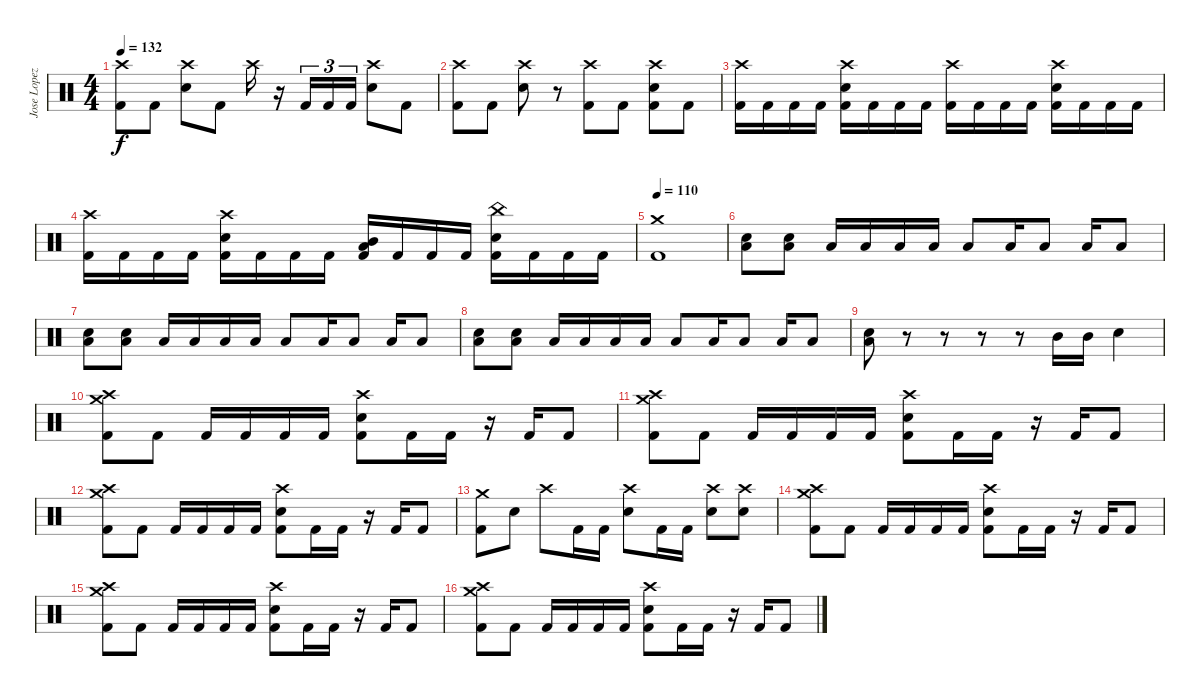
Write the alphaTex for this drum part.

\track ("Jose Lopez" "Jose Lopez") {instrument percussion}
\staff {score}
\articulation defaults
\ts (4 4)
\tempo 132
\clef neutral
\ks c
("Crash high (hit)" "Kick (hit) 2").8{dy f} "Kick (hit) 2".8 ("Crash high (hit)" "Electric Snare (hit)").8 "Kick (hit) 2".8 "Crash high (hit)".16 r.16 "Kick (hit) 2".16{tu (3 2)} "Kick (hit) 2".16{tu (3 2)} "Kick (hit) 2".16{tu (3 2)} ("Crash high (hit)" "Electric Snare (hit)").8 "Kick (hit) 2".8 |
("Crash high (hit)" "Kick (hit) 2").8 "Kick (hit) 2".8 ("Crash high (hit)" "Electric Snare (hit)").8 r.8 ("Crash high (hit)" "Kick (hit) 2").8 "Kick (hit) 2".8 ("Crash high (hit)" "Electric Snare (hit)" "Kick (hit) 2").8 "Kick (hit) 2".8 |
("Crash high (hit)" "Kick (hit) 2").16 "Kick (hit) 2".16 "Kick (hit) 2".16 "Kick (hit) 2".16 ("Crash high (hit)" "Electric Snare (hit)" "Kick (hit) 2").16 "Kick (hit) 2".16 "Kick (hit) 2".16 "Kick (hit) 2".16 ("Crash high (hit)" "Kick (hit) 2").16 "Kick (hit) 2".16 "Kick (hit) 2".16 "Kick (hit) 2".16 ("Crash high (hit)" "Electric Snare (hit)" "Kick (hit) 2").16 "Kick (hit) 2".16 "Kick (hit) 2".16 "Kick (hit) 2".16 |
("Crash high (hit)" "Kick (hit) 2").16 "Kick (hit) 2".16 "Kick (hit) 2".16 "Kick (hit) 2".16 ("Crash high (hit)" "Electric Snare (hit)" "Kick (hit) 2").16 "Kick (hit) 2".16 "Kick (hit) 2".16 "Kick (hit) 2".16 ("Mid Tom (hit)" "Low Tom (hit)" "Kick (hit) 2").16 "Kick (hit) 2".16 "Kick (hit) 2".16 "Kick (hit) 2".16 ("China (hit)" "Electric Snare (hit)" "Kick (hit) 2").16 "Kick (hit) 2".16 "Kick (hit) 2".16 "Kick (hit) 2".16 |
\tempo 110
("Crash medium (hit)" "Kick (hit) 2").1 |
("Electric Snare (hit)" "Low Tom (hit)").8 ("Electric Snare (hit)" "Low Tom (hit)").8 "Low Tom (hit)".16 "Low Tom (hit)".16 "Low Tom (hit)".16 "Low Tom (hit)".16 "Low Tom (hit)".8 "Low Tom (hit)".16 "Low Tom (hit)".8 "Low Tom (hit)".16 "Low Tom (hit)".8 |
("Electric Snare (hit)" "Low Tom (hit)").8 ("Electric Snare (hit)" "Low Tom (hit)").8 "Low Tom (hit)".16 "Low Tom (hit)".16 "Low Tom (hit)".16 "Low Tom (hit)".16 "Low Tom (hit)".8 "Low Tom (hit)".16 "Low Tom (hit)".8 "Low Tom (hit)".16 "Low Tom (hit)".8 |
("Electric Snare (hit)" "Low Tom (hit)").8 ("Electric Snare (hit)" "Low Tom (hit)").8 "Low Tom (hit)".16 "Low Tom (hit)".16 "Low Tom (hit)".16 "Low Tom (hit)".16 "Low Tom (hit)".8 "Low Tom (hit)".16 "Low Tom (hit)".8 "Low Tom (hit)".16 "Low Tom (hit)".8 |
("Electric Snare (hit)" "Low Tom (hit)").8 r.8 r.8 r.8 r.8 "Mid Tom (hit)".16 "Mid Tom (hit)".16 "Electric Snare (hit)".4 |
("Crash high (hit)" "Crash medium (hit)" "Kick (hit) 2").8 "Kick (hit) 2".8 "Kick (hit) 2".16 "Kick (hit) 2".16 "Kick (hit) 2".16 "Kick (hit) 2".16 ("Crash high (hit)" "Electric Snare (hit)" "Kick (hit) 2").8 "Kick (hit) 2".16 "Kick (hit) 2".16 r.16 "Kick (hit) 2".16 "Kick (hit) 2".8 |
("Crash high (hit)" "Crash medium (hit)" "Kick (hit) 2").8 "Kick (hit) 2".8 "Kick (hit) 2".16 "Kick (hit) 2".16 "Kick (hit) 2".16 "Kick (hit) 2".16 ("Crash high (hit)" "Electric Snare (hit)" "Kick (hit) 2").8 "Kick (hit) 2".16 "Kick (hit) 2".16 r.16 "Kick (hit) 2".16 "Kick (hit) 2".8 |
("Crash high (hit)" "Crash medium (hit)" "Kick (hit) 2").8 "Kick (hit) 2".8 "Kick (hit) 2".16 "Kick (hit) 2".16 "Kick (hit) 2".16 "Kick (hit) 2".16 ("Crash high (hit)" "Electric Snare (hit)" "Kick (hit) 2").8 "Kick (hit) 2".16 "Kick (hit) 2".16 r.16 "Kick (hit) 2".16 "Kick (hit) 2".8 |
("Crash medium (hit)" "Kick (hit) 2").8 "Electric Snare (hit)".8 "Crash high (hit)".8 "Kick (hit) 2".16 "Kick (hit) 2".16 ("Crash high (hit)" "Electric Snare (hit)").8 "Kick (hit) 2".16 "Kick (hit) 2".16 ("Crash high (hit)" "Electric Snare (hit)").8 ("Crash high (hit)" "Electric Snare (hit)").8 |
("Crash high (hit)" "Crash medium (hit)" "Kick (hit) 2").8 "Kick (hit) 2".8 "Kick (hit) 2".16 "Kick (hit) 2".16 "Kick (hit) 2".16 "Kick (hit) 2".16 ("Crash high (hit)" "Electric Snare (hit)" "Kick (hit) 2").8 "Kick (hit) 2".16 "Kick (hit) 2".16 r.16 "Kick (hit) 2".16 "Kick (hit) 2".8 |
("Crash high (hit)" "Crash medium (hit)" "Kick (hit) 2").8 "Kick (hit) 2".8 "Kick (hit) 2".16 "Kick (hit) 2".16 "Kick (hit) 2".16 "Kick (hit) 2".16 ("Crash high (hit)" "Electric Snare (hit)" "Kick (hit) 2").8 "Kick (hit) 2".16 "Kick (hit) 2".16 r.16 "Kick (hit) 2".16 "Kick (hit) 2".8 |
("Crash high (hit)" "Crash medium (hit)" "Kick (hit) 2").8 "Kick (hit) 2".8 "Kick (hit) 2".16 "Kick (hit) 2".16 "Kick (hit) 2".16 "Kick (hit) 2".16 ("Crash high (hit)" "Electric Snare (hit)" "Kick (hit) 2").8 "Kick (hit) 2".16 "Kick (hit) 2".16 r.16 "Kick (hit) 2".16 "Kick (hit) 2".8
